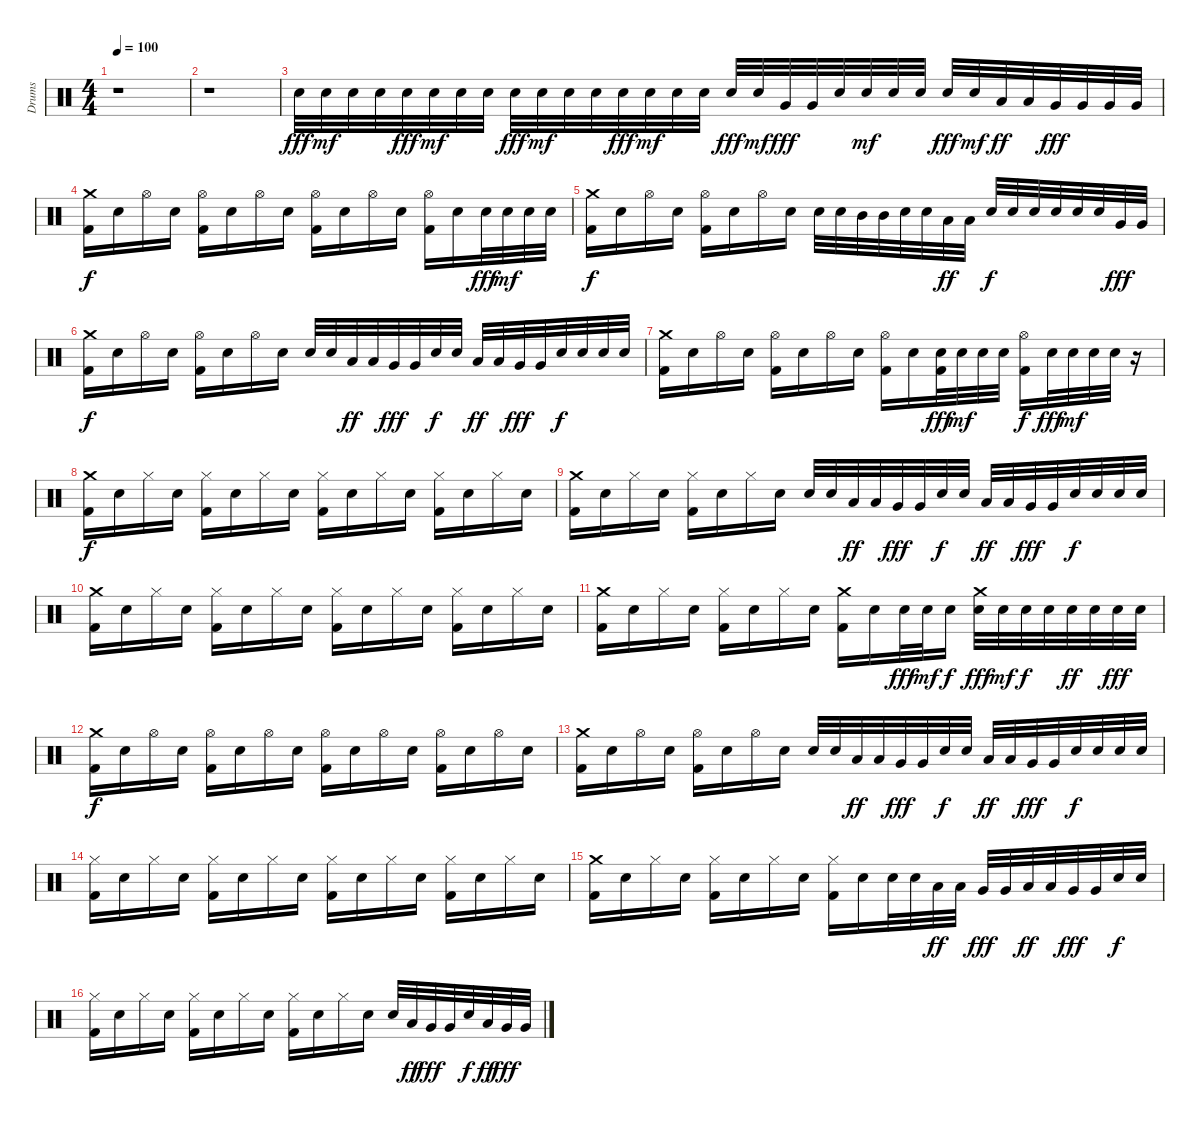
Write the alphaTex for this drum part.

\track ("Drums" "Drums") {instrument percussion}
\staff {score}
\articulation defaults
\ts (4 4)
\tempo 100
\clef neutral
\ks c
r.1{dy fff} |
r.1 |
"Electric Snare (hit)".32 "Electric Snare (hit)".32{dy mf} "Electric Snare (hit)".32 "Electric Snare (hit)".32 "Electric Snare (hit)".32{dy fff} "Electric Snare (hit)".32{dy mf} "Electric Snare (hit)".32 "Electric Snare (hit)".32 "Electric Snare (hit)".32{dy fff} "Electric Snare (hit)".32{dy mf} "Electric Snare (hit)".32 "Electric Snare (hit)".32 "Electric Snare (hit)".32{dy fff} "Electric Snare (hit)".32{dy mf} "Electric Snare (hit)".32 "Electric Snare (hit)".32 "Electric Snare (hit)".32{dy fff} "Electric Snare (hit)".32{dy mf} "Very Low Tom (hit)".32{dy fff} "Very Low Tom (hit)".32 "Electric Snare (hit)".32 "Electric Snare (hit)".32{dy mf} "Electric Snare (hit)".32 "Electric Snare (hit)".32 "Electric Snare (hit)".32{dy fff} "Electric Snare (hit)".32{dy mf} "Low Tom (hit)".32{dy ff} "Low Tom (hit)".32 "Very Low Tom (hit)".32{dy fff} "Very Low Tom (hit)".32 "Very Low Tom (hit)".32 "Very Low Tom (hit)".32 |
("Crash medium (hit)" "Kick (hit) 2").16{dy f} "Electric Snare (hit)".16 "Hi-Hat (open)".16 "Electric Snare (hit)".16 ("Hi-Hat (open)" "Kick (hit) 2").16 "Electric Snare (hit)".16 "Hi-Hat (open)".16 "Electric Snare (hit)".16 ("Hi-Hat (open)" "Kick (hit) 2").16 "Electric Snare (hit)".16 "Hi-Hat (open)".16 "Electric Snare (hit)".16 ("Hi-Hat (open)" "Kick (hit) 2").16 "Electric Snare (hit)".16 "Electric Snare (hit)".32{dy fff} "Electric Snare (hit)".32{dy mf} "Electric Snare (hit)".32 "Electric Snare (hit)".32 |
("Crash medium (hit)" "Kick (hit) 2").16{dy f} "Electric Snare (hit)".16 "Hi-Hat (open)".16 "Electric Snare (hit)".16 ("Hi-Hat (open)" "Kick (hit) 2").16 "Electric Snare (hit)".16 "Hi-Hat (open)".16 "Electric Snare (hit)".16 "Electric Snare (hit)".32 "Electric Snare (hit)".32 "Mid Tom (hit)".32 "Mid Tom (hit)".32 "Electric Snare (hit)".32 "Electric Snare (hit)".32 "Low Tom (hit)".32{dy ff} "Low Tom (hit)".32 "Electric Snare (hit)".32{dy f} "Electric Snare (hit)".32 "Electric Snare (hit)".32 "Electric Snare (hit)".32 "Electric Snare (hit)".32 "Electric Snare (hit)".32 "Very Low Tom (hit)".32{dy fff} "Very Low Tom (hit)".32 |
("Crash medium (hit)" "Kick (hit) 2").16{dy f} "Electric Snare (hit)".16 "Hi-Hat (open)".16 "Electric Snare (hit)".16 ("Hi-Hat (open)" "Kick (hit) 2").16 "Electric Snare (hit)".16 "Hi-Hat (open)".16 "Electric Snare (hit)".16 "Electric Snare (hit)".32 "Electric Snare (hit)".32 "Low Tom (hit)".32{dy ff} "Low Tom (hit)".32 "Very Low Tom (hit)".32{dy fff} "Very Low Tom (hit)".32 "Electric Snare (hit)".32{dy f} "Electric Snare (hit)".32 "Low Tom (hit)".32{dy ff} "Low Tom (hit)".32 "Very Low Tom (hit)".32{dy fff} "Very Low Tom (hit)".32 "Electric Snare (hit)".32{dy f} "Electric Snare (hit)".32 "Electric Snare (hit)".32 "Electric Snare (hit)".32 |
("Crash medium (hit)" "Kick (hit) 2").16 "Electric Snare (hit)".16 "Hi-Hat (open)".16 "Electric Snare (hit)".16 ("Hi-Hat (open)" "Kick (hit) 2").16 "Electric Snare (hit)".16 "Hi-Hat (open)".16 "Electric Snare (hit)".16 ("Hi-Hat (open)" "Kick (hit) 2").16 "Electric Snare (hit)".16 ("Electric Snare (hit)" "Kick (hit) 2").32{dy fff} "Electric Snare (hit)".32{dy mf} "Electric Snare (hit)".32 "Electric Snare (hit)".32 ("Hi-Hat (open)" "Kick (hit) 2").16{dy f} "Electric Snare (hit)".32{dy fff} "Electric Snare (hit)".32{dy mf} "Electric Snare (hit)".32 "Electric Snare (hit)".32 r.16 |
("Crash medium (hit)" "Kick (hit) 2").16{dy f} "Electric Snare (hit)".16 "Hi-Hat (closed)".16 "Electric Snare (hit)".16 ("Hi-Hat (closed)" "Kick (hit) 2").16 "Electric Snare (hit)".16 "Hi-Hat (closed)".16 "Electric Snare (hit)".16 ("Hi-Hat (closed)" "Kick (hit) 2").16 "Electric Snare (hit)".16 "Hi-Hat (closed)".16 "Electric Snare (hit)".16 ("Hi-Hat (closed)" "Kick (hit) 2").16 "Electric Snare (hit)".16 "Hi-Hat (closed)".16 "Electric Snare (hit)".16 |
("Crash medium (hit)" "Kick (hit) 2").16 "Electric Snare (hit)".16 "Hi-Hat (closed)".16 "Electric Snare (hit)".16 ("Hi-Hat (closed)" "Kick (hit) 2").16 "Electric Snare (hit)".16 "Hi-Hat (closed)".16 "Electric Snare (hit)".16 "Electric Snare (hit)".32 "Electric Snare (hit)".32 "Low Tom (hit)".32{dy ff} "Low Tom (hit)".32 "Very Low Tom (hit)".32{dy fff} "Very Low Tom (hit)".32 "Electric Snare (hit)".32{dy f} "Electric Snare (hit)".32 "Low Tom (hit)".32{dy ff} "Low Tom (hit)".32 "Very Low Tom (hit)".32{dy fff} "Very Low Tom (hit)".32 "Electric Snare (hit)".32{dy f} "Electric Snare (hit)".32 "Electric Snare (hit)".32 "Electric Snare (hit)".32 |
("Crash medium (hit)" "Kick (hit) 2").16 "Electric Snare (hit)".16 "Hi-Hat (closed)".16 "Electric Snare (hit)".16 ("Hi-Hat (closed)" "Kick (hit) 2").16 "Electric Snare (hit)".16 "Hi-Hat (closed)".16 "Electric Snare (hit)".16 ("Hi-Hat (closed)" "Kick (hit) 2").16 "Electric Snare (hit)".16 "Hi-Hat (closed)".16 "Electric Snare (hit)".16 ("Hi-Hat (closed)" "Kick (hit) 2").16 "Electric Snare (hit)".16 "Hi-Hat (closed)".16 "Electric Snare (hit)".16 |
("Crash medium (hit)" "Kick (hit) 2").16 "Electric Snare (hit)".16 "Hi-Hat (closed)".16 "Electric Snare (hit)".16 ("Hi-Hat (closed)" "Kick (hit) 2").16 "Electric Snare (hit)".16 "Hi-Hat (closed)".16 "Electric Snare (hit)".16 ("Crash medium (hit)" "Kick (hit) 2").16 "Electric Snare (hit)".16 "Electric Snare (hit)".32{dy fff} "Electric Snare (hit)".32{dy mf} "Electric Snare (hit)".16{dy f} ("Crash medium (hit)" "Electric Snare (hit)").32{dy fff} "Electric Snare (hit)".32{dy mf} "Electric Snare (hit)".32{dy f} "Electric Snare (hit)".32 "Electric Snare (hit)".32{dy ff} "Electric Snare (hit)".32 "Electric Snare (hit)".32{dy fff} "Electric Snare (hit)".32 |
("Crash medium (hit)" "Kick (hit) 2").16{dy f} "Electric Snare (hit)".16 "Hi-Hat (open)".16 "Electric Snare (hit)".16 ("Hi-Hat (open)" "Kick (hit) 2").16 "Electric Snare (hit)".16 "Hi-Hat (open)".16 "Electric Snare (hit)".16 ("Hi-Hat (open)" "Kick (hit) 2").16 "Electric Snare (hit)".16 "Hi-Hat (open)".16 "Electric Snare (hit)".16 ("Hi-Hat (open)" "Kick (hit) 2").16 "Electric Snare (hit)".16 "Hi-Hat (open)".16 "Electric Snare (hit)".16 |
("Crash medium (hit)" "Kick (hit) 2").16 "Electric Snare (hit)".16 "Hi-Hat (open)".16 "Electric Snare (hit)".16 ("Hi-Hat (open)" "Kick (hit) 2").16 "Electric Snare (hit)".16 "Hi-Hat (open)".16 "Electric Snare (hit)".16 "Electric Snare (hit)".32 "Electric Snare (hit)".32 "Low Tom (hit)".32{dy ff} "Low Tom (hit)".32 "Very Low Tom (hit)".32{dy fff} "Very Low Tom (hit)".32 "Electric Snare (hit)".32{dy f} "Electric Snare (hit)".32 "Low Tom (hit)".32{dy ff} "Low Tom (hit)".32 "Very Low Tom (hit)".32{dy fff} "Very Low Tom (hit)".32 "Electric Snare (hit)".32{dy f} "Electric Snare (hit)".32 "Electric Snare (hit)".32 "Electric Snare (hit)".32 |
("Hi-Hat (closed)" "Kick (hit) 2").16 "Electric Snare (hit)".16 "Hi-Hat (closed)".16 "Electric Snare (hit)".16 ("Hi-Hat (closed)" "Kick (hit) 2").16 "Electric Snare (hit)".16 "Hi-Hat (closed)".16 "Electric Snare (hit)".16 ("Hi-Hat (closed)" "Kick (hit) 2").16 "Electric Snare (hit)".16 "Hi-Hat (closed)".16 "Electric Snare (hit)".16 ("Hi-Hat (closed)" "Kick (hit) 2").16 "Electric Snare (hit)".16 "Hi-Hat (closed)".16 "Electric Snare (hit)".16 |
("Crash medium (hit)" "Kick (hit) 2").16 "Electric Snare (hit)".16 "Hi-Hat (closed)".16 "Electric Snare (hit)".16 ("Hi-Hat (closed)" "Kick (hit) 2").16 "Electric Snare (hit)".16 "Hi-Hat (closed)".16 "Electric Snare (hit)".16 ("Hi-Hat (closed)" "Kick (hit) 2").16 "Electric Snare (hit)".16 "Electric Snare (hit)".32 "Electric Snare (hit)".32 "Low Tom (hit)".32{dy ff} "Low Tom (hit)".32 "Very Low Tom (hit)".32{dy fff} "Very Low Tom (hit)".32 "Low Tom (hit)".32{dy ff} "Low Tom (hit)".32 "Very Low Tom (hit)".32{dy fff} "Very Low Tom (hit)".32 "Electric Snare (hit)".32{dy f} "Electric Snare (hit)".32 |
("Hi-Hat (closed)" "Kick (hit) 2").16 "Electric Snare (hit)".16 "Hi-Hat (closed)".16 "Electric Snare (hit)".16 ("Hi-Hat (closed)" "Kick (hit) 2").16 "Electric Snare (hit)".16 "Hi-Hat (closed)".16 "Electric Snare (hit)".16 ("Hi-Hat (closed)" "Kick (hit) 2").16 "Electric Snare (hit)".16 "Hi-Hat (closed)".16 "Electric Snare (hit)".16 "Electric Snare (hit)".32 "Low Tom (hit)".32{dy ff} "Very Low Tom (hit)".32{dy fff} "Very Low Tom (hit)".32 "Electric Snare (hit)".32{dy f} "Low Tom (hit)".32{dy ff} "Very Low Tom (hit)".32{dy fff} "Very Low Tom (hit)".32
